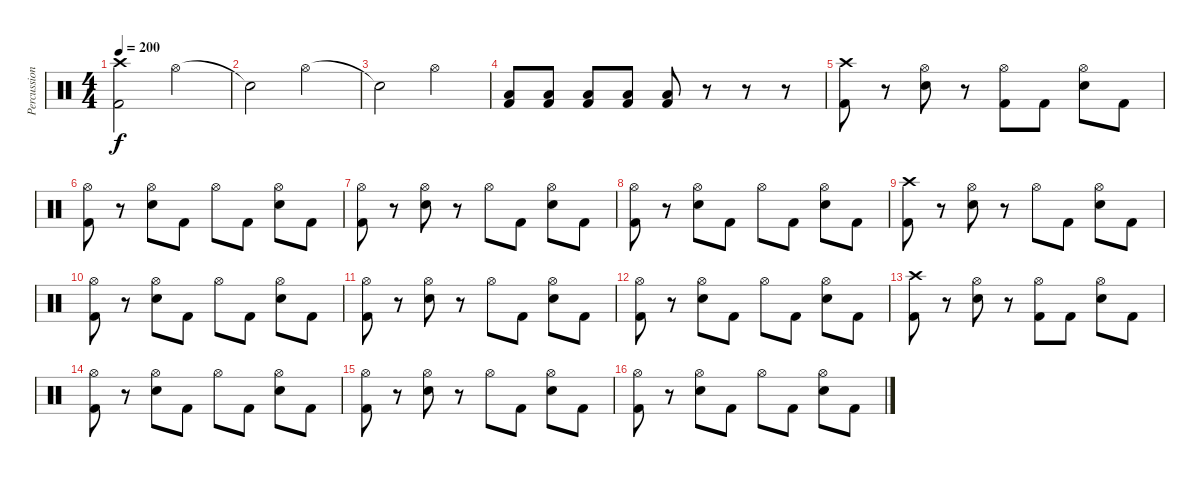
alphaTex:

\track ("Percussion" "Percussion") {instrument percussion}
\staff {score}
\articulation defaults
\ts (4 4)
\tempo 200
\clef neutral
\ks c
("Crash high (hit)" "Kick (hit) 2").2{dy f} "Hi-Hat (open)".2 |
"Snare (hit)"{t}.2 "Hi-Hat (open)".2 |
"Snare (hit)"{t}.2 "Hi-Hat (open)".2 |
("Kick (hit) 2" "Low Floor Tom (hit)").8 ("Kick (hit) 2" "Low Floor Tom (hit)").8 ("Kick (hit) 2" "Low Floor Tom (hit)").8 ("Kick (hit) 2" "Low Floor Tom (hit)").8 ("Kick (hit) 2" "Low Floor Tom (hit)").8 r.8 r.8 r.8 |
("Crash high (hit)" "Kick (hit) 2").8 r.8 ("Hi-Hat (open)" "Snare (hit) 2").8 r.8 ("Hi-Hat (open)" "Kick (hit) 2").8 "Kick (hit) 2".8 ("Hi-Hat (open)" "Snare (hit) 2").8 "Kick (hit) 2".8 |
("Hi-Hat (open)" "Kick (hit) 2").8 r.8 ("Hi-Hat (open)" "Snare (hit) 2").8 "Kick (hit) 2".8 "Hi-Hat (open)".8 "Kick (hit) 2".8 ("Hi-Hat (open)" "Snare (hit) 2").8 "Kick (hit) 2".8 |
("Hi-Hat (open)" "Kick (hit) 2").8 r.8 ("Hi-Hat (open)" "Snare (hit) 2").8 r.8 "Hi-Hat (open)".8 "Kick (hit) 2".8 ("Hi-Hat (open)" "Snare (hit) 2").8 "Kick (hit) 2".8 |
("Hi-Hat (open)" "Kick (hit) 2").8 r.8 ("Hi-Hat (open)" "Snare (hit) 2").8 "Kick (hit) 2".8 "Hi-Hat (open)".8 "Kick (hit) 2".8 ("Hi-Hat (open)" "Snare (hit) 2").8 "Kick (hit) 2".8 |
("Crash high (hit)" "Kick (hit) 2").8 r.8 ("Hi-Hat (open)" "Snare (hit) 2").8 r.8 "Hi-Hat (open)".8 "Kick (hit) 2".8 ("Hi-Hat (open)" "Snare (hit) 2").8 "Kick (hit) 2".8 |
("Hi-Hat (open)" "Kick (hit) 2").8 r.8 ("Hi-Hat (open)" "Snare (hit) 2").8 "Kick (hit) 2".8 "Hi-Hat (open)".8 "Kick (hit) 2".8 ("Hi-Hat (open)" "Snare (hit) 2").8 "Kick (hit) 2".8 |
("Hi-Hat (open)" "Kick (hit) 2").8 r.8 ("Hi-Hat (open)" "Snare (hit) 2").8 r.8 "Hi-Hat (open)".8 "Kick (hit) 2".8 ("Hi-Hat (open)" "Snare (hit) 2").8 "Kick (hit) 2".8 |
("Hi-Hat (open)" "Kick (hit) 2").8 r.8 ("Hi-Hat (open)" "Snare (hit) 2").8 "Kick (hit) 2".8 "Hi-Hat (open)".8 "Kick (hit) 2".8 ("Hi-Hat (open)" "Snare (hit) 2").8 "Kick (hit) 2".8 |
("Crash high (hit)" "Kick (hit) 2").8 r.8 ("Hi-Hat (open)" "Snare (hit) 2").8 r.8 ("Hi-Hat (open)" "Kick (hit) 2").8 "Kick (hit) 2".8 ("Hi-Hat (open)" "Snare (hit) 2").8 "Kick (hit) 2".8 |
("Hi-Hat (open)" "Kick (hit) 2").8 r.8 ("Hi-Hat (open)" "Snare (hit) 2").8 "Kick (hit) 2".8 "Hi-Hat (open)".8 "Kick (hit) 2".8 ("Hi-Hat (open)" "Snare (hit) 2").8 "Kick (hit) 2".8 |
("Hi-Hat (open)" "Kick (hit) 2").8 r.8 ("Hi-Hat (open)" "Snare (hit) 2").8 r.8 "Hi-Hat (open)".8 "Kick (hit) 2".8 ("Hi-Hat (open)" "Snare (hit) 2").8 "Kick (hit) 2".8 |
("Hi-Hat (open)" "Kick (hit) 2").8 r.8 ("Hi-Hat (open)" "Snare (hit) 2").8 "Kick (hit) 2".8 "Hi-Hat (open)".8 "Kick (hit) 2".8 ("Hi-Hat (open)" "Snare (hit) 2").8 "Kick (hit) 2".8
